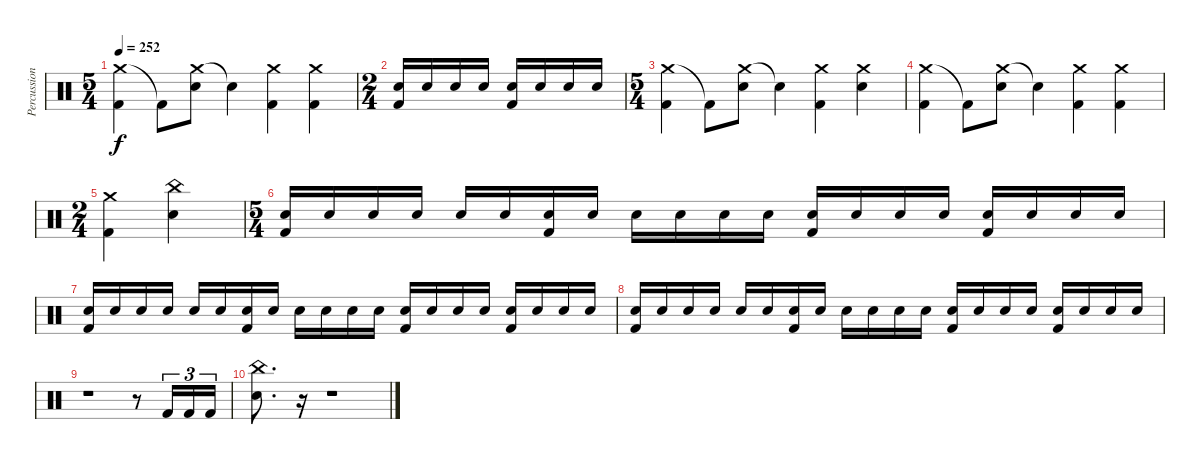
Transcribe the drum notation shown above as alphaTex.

\track ("Percussion" "Percussion") {instrument percussion}
\staff {score}
\articulation defaults
\ts (5 4)
\tempo 252
\clef neutral
\ks c
("Crash medium (hit)" "Kick (hit) 2").4{dy f} "Kick (hit) 2"{t}.8 ("Crash medium (hit)" "Electric Snare (hit)").8 "Electric Snare (hit)"{t}.4 ("Crash medium (hit)" "Kick (hit) 2").4 ("Crash medium (hit)" "Kick (hit) 2").4 |
\ts (2 4)
("Electric Snare (hit)" "Kick (hit) 2").16 "Electric Snare (hit)".16 "Electric Snare (hit)".16 "Electric Snare (hit)".16 ("Electric Snare (hit)" "Kick (hit) 2").16 "Electric Snare (hit)".16 "Electric Snare (hit)".16 "Electric Snare (hit)".16 |
\ts (5 4)
("Crash medium (hit)" "Kick (hit) 2").4 "Kick (hit) 2"{t}.8 ("Crash medium (hit)" "Electric Snare (hit)").8 "Electric Snare (hit)"{t}.4 ("Crash medium (hit)" "Kick (hit) 2").4 ("Crash medium (hit)" "Electric Snare (hit)").4 |
("Crash medium (hit)" "Kick (hit) 2").4 "Kick (hit) 2"{t}.8 ("Crash medium (hit)" "Electric Snare (hit)").8 "Electric Snare (hit)"{t}.4 ("Crash medium (hit)" "Kick (hit) 2").4 ("Crash medium (hit)" "Kick (hit) 2").4 |
\ts (2 4)
("Crash medium (hit)" "Kick (hit) 2").4 ("China (hit)" "Electric Snare (hit)").4 |
\ts (5 4)
("Electric Snare (hit)" "Kick (hit) 2").16{volume 12} "Electric Snare (hit)".16 "Electric Snare (hit)".16 "Electric Snare (hit)".16 "Electric Snare (hit)".16 "Electric Snare (hit)".16 ("Electric Snare (hit)" "Kick (hit) 2").16 "Electric Snare (hit)".16 "Electric Snare (hit)".16 "Electric Snare (hit)".16 "Electric Snare (hit)".16 "Electric Snare (hit)".16 ("Electric Snare (hit)" "Kick (hit) 2").16 "Electric Snare (hit)".16 "Electric Snare (hit)".16 "Electric Snare (hit)".16 ("Electric Snare (hit)" "Kick (hit) 2").16 "Electric Snare (hit)".16 "Electric Snare (hit)".16 "Electric Snare (hit)".16 |
("Electric Snare (hit)" "Kick (hit) 2").16 "Electric Snare (hit)".16 "Electric Snare (hit)".16 "Electric Snare (hit)".16 "Electric Snare (hit)".16 "Electric Snare (hit)".16 ("Electric Snare (hit)" "Kick (hit) 2").16 "Electric Snare (hit)".16 "Electric Snare (hit)".16 "Electric Snare (hit)".16 "Electric Snare (hit)".16 "Electric Snare (hit)".16 ("Electric Snare (hit)" "Kick (hit) 2").16 "Electric Snare (hit)".16 "Electric Snare (hit)".16 "Electric Snare (hit)".16 ("Electric Snare (hit)" "Kick (hit) 2").16 "Electric Snare (hit)".16 "Electric Snare (hit)".16 "Electric Snare (hit)".16 |
("Electric Snare (hit)" "Kick (hit) 2").16 "Electric Snare (hit)".16 "Electric Snare (hit)".16 "Electric Snare (hit)".16 "Electric Snare (hit)".16 "Electric Snare (hit)".16 ("Electric Snare (hit)" "Kick (hit) 2").16 "Electric Snare (hit)".16 "Electric Snare (hit)".16 "Electric Snare (hit)".16 "Electric Snare (hit)".16 "Electric Snare (hit)".16 ("Electric Snare (hit)" "Kick (hit) 2").16 "Electric Snare (hit)".16 "Electric Snare (hit)".16 "Electric Snare (hit)".16 ("Electric Snare (hit)" "Kick (hit) 2").16 "Electric Snare (hit)".16 "Electric Snare (hit)".16 "Electric Snare (hit)".16 |
r.1 r.8 "Kick (hit) 2".16{tu (3 2)} "Kick (hit) 2".16{tu (3 2)} "Kick (hit) 2".16{tu (3 2)} |
("China (hit)" "Electric Snare (hit)").8{d} r.16{volume 0} r.1
